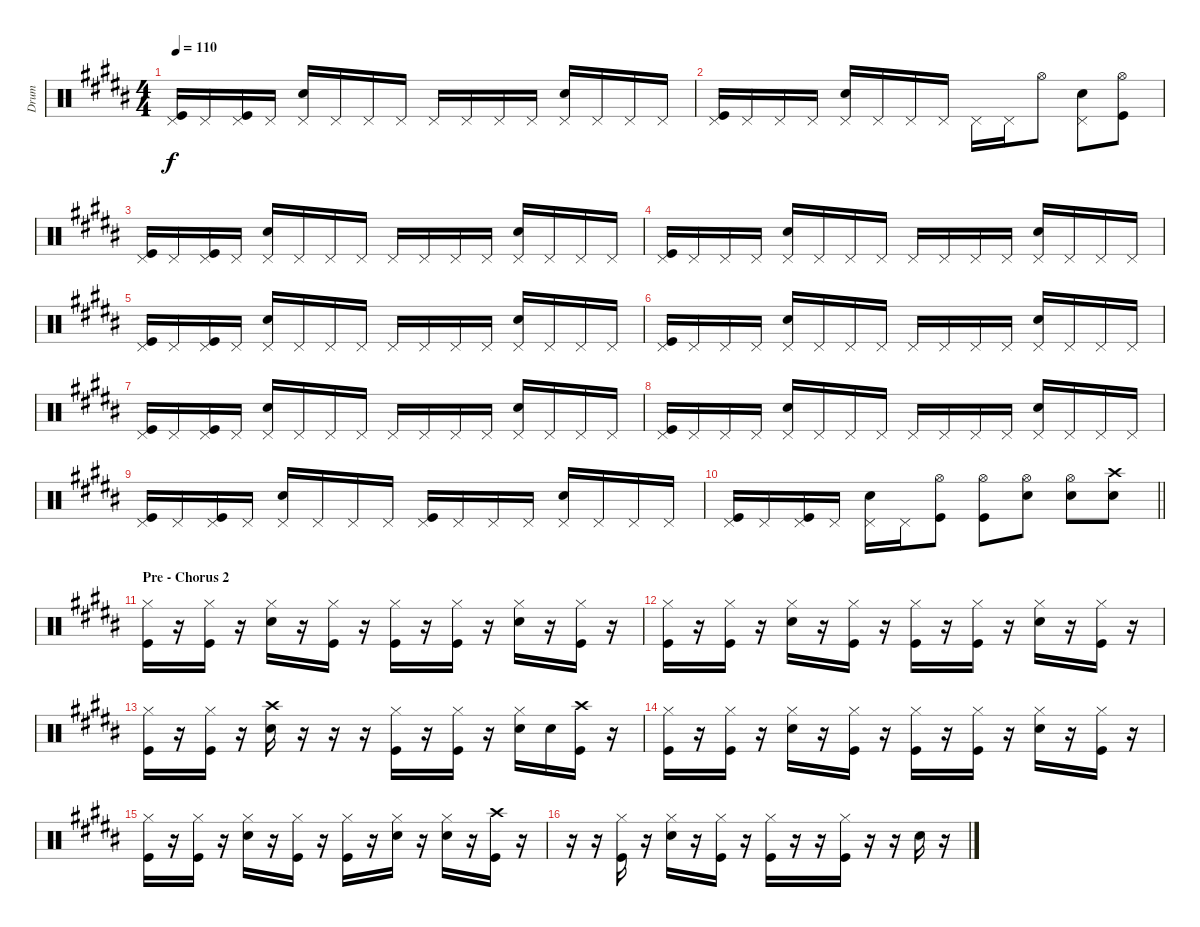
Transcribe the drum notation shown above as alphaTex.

\track ("Drum" "Drum") {instrument percussion}
\staff {score}
\articulation defaults
\ts (4 4)
\tempo 110
\clef neutral
\ks g#minor
("Pedal Hi-Hat (hit)" "Kick (hit)").16{dy f} "Pedal Hi-Hat (hit)".16 ("Pedal Hi-Hat (hit)" "Kick (hit)").16 "Pedal Hi-Hat (hit)".16 ("Pedal Hi-Hat (hit)" "Snare (hit) 2").16 "Pedal Hi-Hat (hit)".16 "Pedal Hi-Hat (hit)".16 "Pedal Hi-Hat (hit)".16 "Pedal Hi-Hat (hit)".16 "Pedal Hi-Hat (hit)".16 "Pedal Hi-Hat (hit)".16 "Pedal Hi-Hat (hit)".16 ("Pedal Hi-Hat (hit)" "Snare (hit) 2").16 "Pedal Hi-Hat (hit)".16 "Pedal Hi-Hat (hit)".16 "Pedal Hi-Hat (hit)".16 |
("Pedal Hi-Hat (hit)" "Kick (hit)").16 "Pedal Hi-Hat (hit)".16 "Pedal Hi-Hat (hit)".16 "Pedal Hi-Hat (hit)".16 ("Pedal Hi-Hat (hit)" "Snare (hit) 2").16 "Pedal Hi-Hat (hit)".16 "Pedal Hi-Hat (hit)".16 "Pedal Hi-Hat (hit)".16 "Pedal Hi-Hat (hit)".16 "Pedal Hi-Hat (hit)".16 "Hi-Hat (open)".8 ("Pedal Hi-Hat (hit)" "Snare (hit) 2").8 ("Hi-Hat (open)" "Kick (hit)").8 |
\ks b
("Pedal Hi-Hat (hit)" "Kick (hit)").16 "Pedal Hi-Hat (hit)".16 ("Pedal Hi-Hat (hit)" "Kick (hit)").16 "Pedal Hi-Hat (hit)".16 ("Pedal Hi-Hat (hit)" "Snare (hit) 2").16 "Pedal Hi-Hat (hit)".16 "Pedal Hi-Hat (hit)".16 "Pedal Hi-Hat (hit)".16 "Pedal Hi-Hat (hit)".16 "Pedal Hi-Hat (hit)".16 "Pedal Hi-Hat (hit)".16 "Pedal Hi-Hat (hit)".16 ("Pedal Hi-Hat (hit)" "Snare (hit) 2").16 "Pedal Hi-Hat (hit)".16 "Pedal Hi-Hat (hit)".16 "Pedal Hi-Hat (hit)".16 |
\ks g#minor
("Pedal Hi-Hat (hit)" "Kick (hit)").16 "Pedal Hi-Hat (hit)".16 "Pedal Hi-Hat (hit)".16 "Pedal Hi-Hat (hit)".16 ("Pedal Hi-Hat (hit)" "Snare (hit) 2").16 "Pedal Hi-Hat (hit)".16 "Pedal Hi-Hat (hit)".16 "Pedal Hi-Hat (hit)".16 "Pedal Hi-Hat (hit)".16 "Pedal Hi-Hat (hit)".16 "Pedal Hi-Hat (hit)".16 "Pedal Hi-Hat (hit)".16 ("Pedal Hi-Hat (hit)" "Snare (hit) 2").16 "Pedal Hi-Hat (hit)".16 "Pedal Hi-Hat (hit)".16 "Pedal Hi-Hat (hit)".16 |
("Pedal Hi-Hat (hit)" "Kick (hit)").16 "Pedal Hi-Hat (hit)".16 ("Pedal Hi-Hat (hit)" "Kick (hit)").16 "Pedal Hi-Hat (hit)".16 ("Pedal Hi-Hat (hit)" "Snare (hit) 2").16 "Pedal Hi-Hat (hit)".16 "Pedal Hi-Hat (hit)".16 "Pedal Hi-Hat (hit)".16 "Pedal Hi-Hat (hit)".16 "Pedal Hi-Hat (hit)".16 "Pedal Hi-Hat (hit)".16 "Pedal Hi-Hat (hit)".16 ("Pedal Hi-Hat (hit)" "Snare (hit) 2").16 "Pedal Hi-Hat (hit)".16 "Pedal Hi-Hat (hit)".16 "Pedal Hi-Hat (hit)".16 |
("Pedal Hi-Hat (hit)" "Kick (hit)").16 "Pedal Hi-Hat (hit)".16 "Pedal Hi-Hat (hit)".16 "Pedal Hi-Hat (hit)".16 ("Pedal Hi-Hat (hit)" "Snare (hit) 2").16 "Pedal Hi-Hat (hit)".16 "Pedal Hi-Hat (hit)".16 "Pedal Hi-Hat (hit)".16 "Pedal Hi-Hat (hit)".16 "Pedal Hi-Hat (hit)".16 "Pedal Hi-Hat (hit)".16 "Pedal Hi-Hat (hit)".16 ("Pedal Hi-Hat (hit)" "Snare (hit) 2").16 "Pedal Hi-Hat (hit)".16 "Pedal Hi-Hat (hit)".16 "Pedal Hi-Hat (hit)".16 |
\ks b
("Pedal Hi-Hat (hit)" "Kick (hit)").16 "Pedal Hi-Hat (hit)".16 ("Pedal Hi-Hat (hit)" "Kick (hit)").16 "Pedal Hi-Hat (hit)".16 ("Pedal Hi-Hat (hit)" "Snare (hit) 2").16 "Pedal Hi-Hat (hit)".16 "Pedal Hi-Hat (hit)".16 "Pedal Hi-Hat (hit)".16 "Pedal Hi-Hat (hit)".16 "Pedal Hi-Hat (hit)".16 "Pedal Hi-Hat (hit)".16 "Pedal Hi-Hat (hit)".16 ("Pedal Hi-Hat (hit)" "Snare (hit) 2").16 "Pedal Hi-Hat (hit)".16 "Pedal Hi-Hat (hit)".16 "Pedal Hi-Hat (hit)".16 |
\ks g#minor
("Pedal Hi-Hat (hit)" "Kick (hit)").16 "Pedal Hi-Hat (hit)".16 "Pedal Hi-Hat (hit)".16 "Pedal Hi-Hat (hit)".16 ("Pedal Hi-Hat (hit)" "Snare (hit) 2").16 "Pedal Hi-Hat (hit)".16 "Pedal Hi-Hat (hit)".16 "Pedal Hi-Hat (hit)".16 "Pedal Hi-Hat (hit)".16 "Pedal Hi-Hat (hit)".16 "Pedal Hi-Hat (hit)".16 "Pedal Hi-Hat (hit)".16 ("Pedal Hi-Hat (hit)" "Snare (hit) 2").16 "Pedal Hi-Hat (hit)".16 "Pedal Hi-Hat (hit)".16 "Pedal Hi-Hat (hit)".16 |
("Pedal Hi-Hat (hit)" "Kick (hit)").16 "Pedal Hi-Hat (hit)".16 ("Pedal Hi-Hat (hit)" "Kick (hit)").16 "Pedal Hi-Hat (hit)".16 ("Pedal Hi-Hat (hit)" "Snare (hit) 2").16 "Pedal Hi-Hat (hit)".16 "Pedal Hi-Hat (hit)".16 "Pedal Hi-Hat (hit)".16 ("Pedal Hi-Hat (hit)" "Kick (hit)").16 "Pedal Hi-Hat (hit)".16 "Pedal Hi-Hat (hit)".16 "Pedal Hi-Hat (hit)".16 ("Pedal Hi-Hat (hit)" "Snare (hit) 2").16 "Pedal Hi-Hat (hit)".16 "Pedal Hi-Hat (hit)".16 "Pedal Hi-Hat (hit)".16 |
\barLineRight lightlight
("Pedal Hi-Hat (hit)" "Kick (hit)").16 "Pedal Hi-Hat (hit)".16 ("Pedal Hi-Hat (hit)" "Kick (hit)").16 "Pedal Hi-Hat (hit)".16 ("Pedal Hi-Hat (hit)" "Snare (hit) 2").16 "Pedal Hi-Hat (hit)".16 ("Hi-Hat (open)" "Kick (hit)").8 ("Hi-Hat (open)" "Kick (hit)").8 ("Hi-Hat (open)" "Snare (hit) 2").8 ("Hi-Hat (open)" "Snare (hit) 2").8 ("Snare (hit) 2" "Crash high (hit)").8 |
\section ("" "Pre - Chorus 2")
\ks b
("Kick (hit)" "Hi-Hat (closed)").16 r.16 ("Kick (hit)" "Hi-Hat (closed)").16 r.16 ("Snare (hit) 2" "Hi-Hat (closed)").16 r.16 ("Kick (hit)" "Hi-Hat (closed)").16 r.16 ("Kick (hit)" "Hi-Hat (closed)").16 r.16 ("Kick (hit)" "Hi-Hat (closed)").16 r.16 ("Snare (hit) 2" "Hi-Hat (closed)").16 r.16 ("Kick (hit)" "Hi-Hat (closed)").16 r.16 |
\ks g#minor
("Kick (hit)" "Hi-Hat (closed)").16 r.16 ("Kick (hit)" "Hi-Hat (closed)").16 r.16 ("Snare (hit) 2" "Hi-Hat (closed)").16 r.16 ("Kick (hit)" "Hi-Hat (closed)").16 r.16 ("Kick (hit)" "Hi-Hat (closed)").16 r.16 ("Kick (hit)" "Hi-Hat (closed)").16 r.16 ("Snare (hit) 2" "Hi-Hat (closed)").16 r.16 ("Kick (hit)" "Hi-Hat (closed)").16 r.16 |
("Kick (hit)" "Hi-Hat (closed)").16 r.16 ("Kick (hit)" "Hi-Hat (closed)").16 r.16 ("Snare (hit) 2" "Crash high (hit)").16 r.16 r.16 r.16 ("Kick (hit)" "Hi-Hat (closed)").16 r.16 ("Kick (hit)" "Hi-Hat (closed)").16 r.16 ("Snare (hit) 2" "Hi-Hat (closed)").16 "Snare (hit) 2".16 ("Kick (hit)" "Crash high (hit)").16 r.16 |
\ks b
("Kick (hit)" "Hi-Hat (closed)").16 r.16 ("Kick (hit)" "Hi-Hat (closed)").16 r.16 ("Snare (hit) 2" "Hi-Hat (closed)").16 r.16 ("Kick (hit)" "Hi-Hat (closed)").16 r.16 ("Kick (hit)" "Hi-Hat (closed)").16 r.16 ("Kick (hit)" "Hi-Hat (closed)").16 r.16 ("Snare (hit) 2" "Hi-Hat (closed)").16 r.16 ("Kick (hit)" "Hi-Hat (closed)").16 r.16 |
\ks g#minor
("Kick (hit)" "Hi-Hat (closed)").16 r.16 ("Kick (hit)" "Hi-Hat (closed)").16 r.16 ("Snare (hit) 2" "Hi-Hat (closed)").16 r.16 ("Kick (hit)" "Hi-Hat (closed)").16 r.16 ("Kick (hit)" "Hi-Hat (closed)").16 r.16 ("Snare (hit) 2" "Hi-Hat (closed)").16 r.16 ("Snare (hit) 2" "Hi-Hat (closed)").16 r.16 ("Kick (hit)" "Crash high (hit)").16 r.16 |
r.16 r.16 ("Kick (hit)" "Hi-Hat (closed)").16 r.16 ("Snare (hit) 2" "Hi-Hat (closed)").16 r.16 ("Kick (hit)" "Hi-Hat (closed)").16 r.16 ("Kick (hit)" "Hi-Hat (closed)").16 r.16 r.16 ("Kick (hit)" "Hi-Hat (closed)").16 r.16 r.16 "Snare (hit) 2".16 r.16
